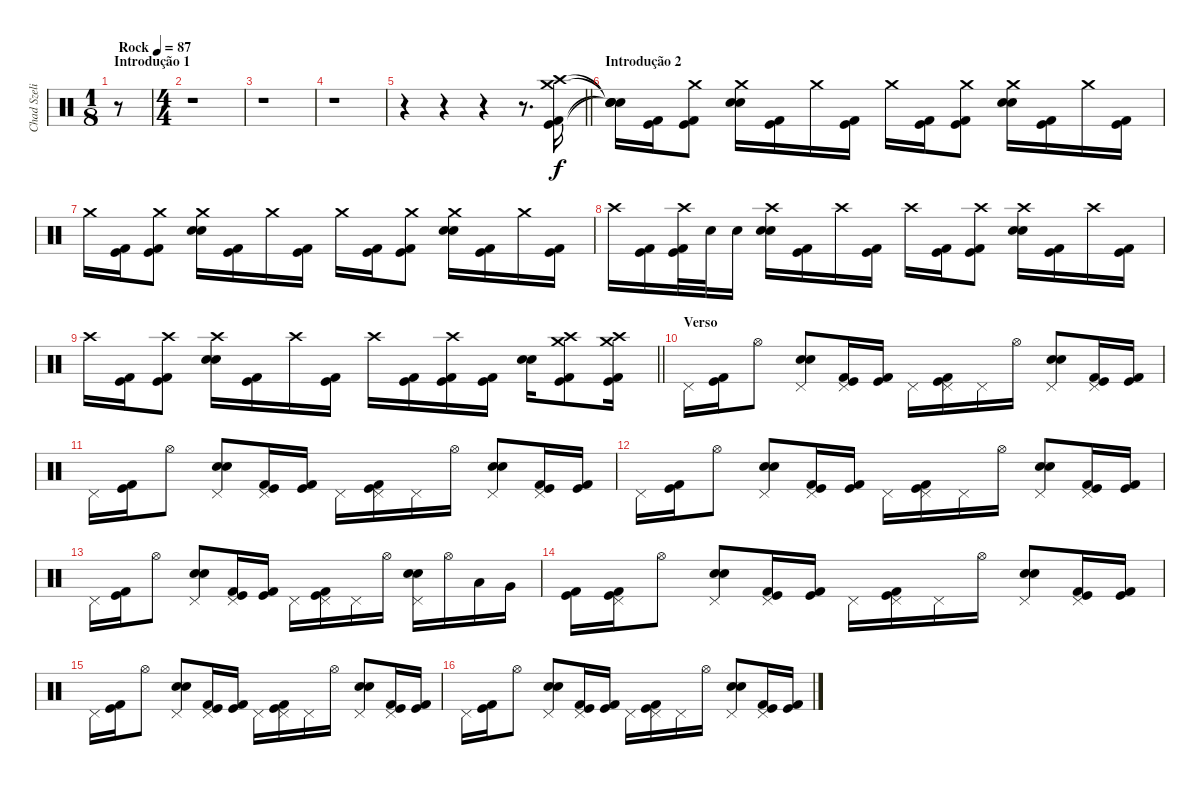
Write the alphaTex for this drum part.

\track ("Chad Szeliga" "Chad Szeli") {instrument percussion}
\staff {score}
\articulation defaults
\ts (1 8)
\section ("" "Introdução 1")
\tempo (87 "Rock")
\clef neutral
\ks c
r.8{dy f} |
\ts (4 4)
r.1 |
r.1 |
r.1 |
\barLineRight lightlight
r.4 r.4 r.4 r.8{d} ("Crash high (hit)" "Kick (hit) 2" "Kick (hit)" "Crash medium (hit)").16 |
\section ("" "Introdução 2")
("Snare (hit)"{t} "Snare (hit)"{t} "Snare (hit)"{t} "Snare (hit)"{t}).16 ("Kick (hit) 2" "Kick (hit)").16 ("Crash medium (hit)" "Kick (hit) 2" "Kick (hit)").8 ("Crash medium (hit)" "Snare (hit) 2" "Snare (hit) 2").16 ("Kick (hit) 2" "Kick (hit)").16 "Crash medium (hit)".16 ("Kick (hit) 2" "Kick (hit)").16 "Crash medium (hit)".16 ("Kick (hit) 2" "Kick (hit)").16 ("Crash medium (hit)" "Kick (hit) 2" "Kick (hit)").8 ("Crash medium (hit)" "Snare (hit) 2" "Snare (hit) 2").16 ("Kick (hit) 2" "Kick (hit)").16 "Crash medium (hit)".16 ("Kick (hit) 2" "Kick (hit)").16 |
"Crash medium (hit)".16 ("Kick (hit) 2" "Kick (hit)").16 ("Crash medium (hit)" "Kick (hit) 2" "Kick (hit)").8 ("Crash medium (hit)" "Snare (hit) 2" "Snare (hit) 2").16 ("Kick (hit) 2" "Kick (hit)").16 "Crash medium (hit)".16 ("Kick (hit) 2" "Kick (hit)").16 "Crash medium (hit)".16 ("Kick (hit) 2" "Kick (hit)").16 ("Crash medium (hit)" "Kick (hit) 2" "Kick (hit)").8 ("Crash medium (hit)" "Snare (hit) 2" "Snare (hit) 2").16 ("Kick (hit) 2" "Kick (hit)").16 "Crash medium (hit)".16 ("Kick (hit) 2" "Kick (hit)").16 |
"Crash high (hit)".16 ("Kick (hit) 2" "Kick (hit)").16 ("Crash high (hit)" "Kick (hit) 2" "Kick (hit)").32 "Snare (hit) 2".32 "Snare (hit) 2".16 ("Crash high (hit)" "Snare (hit) 2" "Snare (hit) 2").16 ("Kick (hit) 2" "Kick (hit)").16 "Crash high (hit)".16 ("Kick (hit) 2" "Kick (hit)").16 "Crash high (hit)".16 ("Kick (hit) 2" "Kick (hit)").16 ("Crash high (hit)" "Kick (hit) 2" "Kick (hit)").8 ("Crash high (hit)" "Snare (hit) 2" "Snare (hit) 2").16 ("Kick (hit) 2" "Kick (hit)").16 "Crash high (hit)".16 ("Kick (hit) 2" "Kick (hit)").16 |
\barLineRight lightlight "Crash high (hit)".16
("Kick (hit) 2" "Kick (hit)").16 ("Crash high (hit)" "Kick (hit) 2" "Kick (hit)").8 ("Crash high (hit)" "Snare (hit) 2" "Snare (hit) 2").16 ("Kick (hit) 2" "Kick (hit)").16 "Crash high (hit)".16 ("Kick (hit) 2" "Kick (hit)").16 "Crash high (hit)".16 ("Kick (hit) 2" "Kick (hit)").16 ("Crash high (hit)" "Kick (hit) 2" "Kick (hit)").16 ("Kick (hit) 2" "Kick (hit)").16 ("Snare (hit) 2" "Snare (hit) 2").16 ("Crash high (hit)" "Kick (hit) 2" "Kick (hit)" "Crash medium (hit)").8 ("Crash high (hit)" "Kick (hit) 2" "Kick (hit)" "Crash medium (hit)").16 |
\section ("" "Verso")
"Pedal Hi-Hat (hit)".16 ("Kick (hit) 2" "Kick (hit)").16 "Hi-Hat (open)".8 ("Snare (hit) 2" "Snare (hit) 2" "Pedal Hi-Hat (hit)").8 ("Kick (hit) 2" "Kick (hit)" "Pedal Hi-Hat (hit)").16 ("Kick (hit) 2" "Kick (hit)").16 "Pedal Hi-Hat (hit)".16 ("Kick (hit) 2" "Kick (hit)" "Pedal Hi-Hat (hit)").16 "Pedal Hi-Hat (hit)".16 "Hi-Hat (open)".16 ("Snare (hit) 2" "Snare (hit) 2" "Pedal Hi-Hat (hit)").8 ("Kick (hit) 2" "Kick (hit)" "Pedal Hi-Hat (hit)").16 ("Kick (hit) 2" "Kick (hit)").16 |
"Pedal Hi-Hat (hit)".16 ("Kick (hit) 2" "Kick (hit)").16 "Hi-Hat (open)".8 ("Snare (hit) 2" "Snare (hit) 2" "Pedal Hi-Hat (hit)").8 ("Kick (hit) 2" "Kick (hit)" "Pedal Hi-Hat (hit)").16 ("Kick (hit) 2" "Kick (hit)").16 "Pedal Hi-Hat (hit)".16 ("Kick (hit) 2" "Kick (hit)" "Pedal Hi-Hat (hit)").16 "Pedal Hi-Hat (hit)".16 "Hi-Hat (open)".16 ("Snare (hit) 2" "Snare (hit) 2" "Pedal Hi-Hat (hit)").8 ("Kick (hit) 2" "Kick (hit)" "Pedal Hi-Hat (hit)").16 ("Kick (hit) 2" "Kick (hit)").16 |
"Pedal Hi-Hat (hit)".16 ("Kick (hit) 2" "Kick (hit)").16 "Hi-Hat (open)".8 ("Snare (hit) 2" "Snare (hit) 2" "Pedal Hi-Hat (hit)").8 ("Kick (hit) 2" "Kick (hit)" "Pedal Hi-Hat (hit)").16 ("Kick (hit) 2" "Kick (hit)").16 "Pedal Hi-Hat (hit)".16 ("Kick (hit) 2" "Kick (hit)" "Pedal Hi-Hat (hit)").16 "Pedal Hi-Hat (hit)".16 "Hi-Hat (open)".16 ("Snare (hit) 2" "Snare (hit) 2" "Pedal Hi-Hat (hit)").8 ("Kick (hit) 2" "Kick (hit)" "Pedal Hi-Hat (hit)").16 ("Kick (hit) 2" "Kick (hit)").16 |
"Pedal Hi-Hat (hit)".16 ("Kick (hit) 2" "Kick (hit)").16 "Hi-Hat (open)".8 ("Snare (hit) 2" "Snare (hit) 2" "Pedal Hi-Hat (hit)").8 ("Kick (hit) 2" "Kick (hit)" "Pedal Hi-Hat (hit)").16 ("Kick (hit) 2" "Kick (hit)").16 "Pedal Hi-Hat (hit)".16 ("Kick (hit) 2" "Kick (hit)" "Pedal Hi-Hat (hit)").16 "Pedal Hi-Hat (hit)".16 "Hi-Hat (open)".16 ("Snare (hit) 2" "Snare (hit) 2" "Pedal Hi-Hat (hit)").16 "Hi-Hat (open)".16 "Low Tom (hit)".16 "Very Low Tom (hit)".16 |
("Kick (hit) 2" "Kick (hit)").16 ("Kick (hit) 2" "Kick (hit)" "Pedal Hi-Hat (hit)").16 "Hi-Hat (open)".8 ("Snare (hit) 2" "Snare (hit) 2" "Pedal Hi-Hat (hit)").8 ("Kick (hit) 2" "Kick (hit)" "Pedal Hi-Hat (hit)").16 ("Kick (hit) 2" "Kick (hit)").16 "Pedal Hi-Hat (hit)".16 ("Kick (hit) 2" "Kick (hit)" "Pedal Hi-Hat (hit)").16 "Pedal Hi-Hat (hit)".16 "Hi-Hat (open)".16 ("Snare (hit) 2" "Snare (hit) 2" "Pedal Hi-Hat (hit)").8 ("Kick (hit) 2" "Kick (hit)" "Pedal Hi-Hat (hit)").16 ("Kick (hit) 2" "Kick (hit)").16 |
"Pedal Hi-Hat (hit)".16 ("Kick (hit) 2" "Kick (hit)").16 "Hi-Hat (open)".8 ("Snare (hit) 2" "Snare (hit) 2" "Pedal Hi-Hat (hit)").8 ("Kick (hit) 2" "Kick (hit)" "Pedal Hi-Hat (hit)").16 ("Kick (hit) 2" "Kick (hit)").16 "Pedal Hi-Hat (hit)".16 ("Kick (hit) 2" "Kick (hit)" "Pedal Hi-Hat (hit)").16 "Pedal Hi-Hat (hit)".16 "Hi-Hat (open)".16 ("Snare (hit) 2" "Snare (hit) 2" "Pedal Hi-Hat (hit)").8 ("Kick (hit) 2" "Kick (hit)" "Pedal Hi-Hat (hit)").16 ("Kick (hit) 2" "Kick (hit)").16 |
"Pedal Hi-Hat (hit)".16 ("Kick (hit) 2" "Kick (hit)").16 "Hi-Hat (open)".8 ("Snare (hit) 2" "Snare (hit) 2" "Pedal Hi-Hat (hit)").8 ("Kick (hit) 2" "Kick (hit)" "Pedal Hi-Hat (hit)").16 ("Kick (hit) 2" "Kick (hit)").16 "Pedal Hi-Hat (hit)".16 ("Kick (hit) 2" "Kick (hit)" "Pedal Hi-Hat (hit)").16 "Pedal Hi-Hat (hit)".16 "Hi-Hat (open)".16 ("Snare (hit) 2" "Snare (hit) 2" "Pedal Hi-Hat (hit)").8 ("Kick (hit) 2" "Kick (hit)" "Pedal Hi-Hat (hit)").16 ("Kick (hit) 2" "Kick (hit)").16
